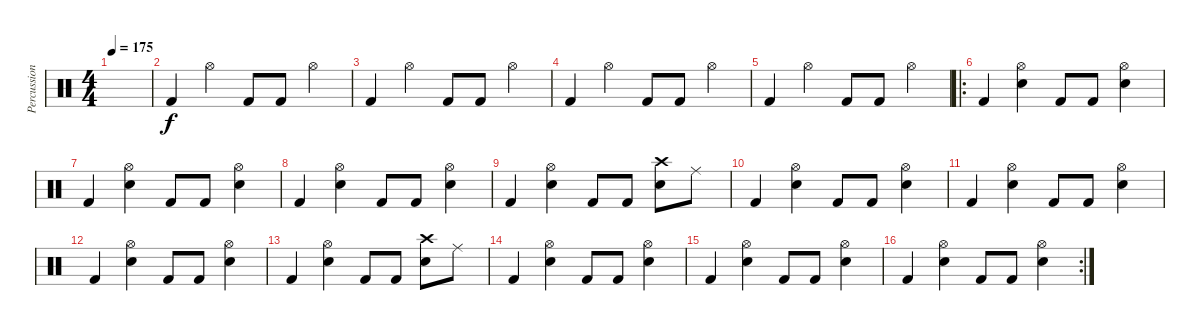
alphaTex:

\track ("Percussions" "Percussion") {instrument percussion}
\staff {score}
\articulation defaults
\ts (4 4)
\tempo 175
\clef neutral
\ks c
|
"Kick (hit) 2".4 "Hi-Hat (open)".4 "Kick (hit) 2".8 "Kick (hit) 2".8 "Hi-Hat (open)".4 |
"Kick (hit) 2".4 "Hi-Hat (open)".4 "Kick (hit) 2".8 "Kick (hit) 2".8 "Hi-Hat (open)".4 |
"Kick (hit) 2".4 "Hi-Hat (open)".4 "Kick (hit) 2".8 "Kick (hit) 2".8 "Hi-Hat (open)".4 |
"Kick (hit) 2".4 "Hi-Hat (open)".4 "Kick (hit) 2".8 "Kick (hit) 2".8 "Hi-Hat (open)".4 |
\ro "Kick (hit) 2".4
("Hi-Hat (open)" "Electric Snare (hit)").4 "Kick (hit) 2".8 "Kick (hit) 2".8 ("Hi-Hat (open)" "Electric Snare (hit)").4 |
"Kick (hit) 2".4 ("Hi-Hat (open)" "Electric Snare (hit)").4 "Kick (hit) 2".8 "Kick (hit) 2".8 ("Hi-Hat (open)" "Electric Snare (hit)").4 |
"Kick (hit) 2".4 ("Hi-Hat (open)" "Electric Snare (hit)").4 "Kick (hit) 2".8 "Kick (hit) 2".8 ("Hi-Hat (open)" "Electric Snare (hit)").4 |
"Kick (hit) 2".4 ("Hi-Hat (open)" "Electric Snare (hit)").4 "Kick (hit) 2".8 "Kick (hit) 2".8 ("Crash high (hit)" "Electric Snare (hit)").8 "Ride (middle)".8 |
"Kick (hit) 2".4 ("Hi-Hat (open)" "Electric Snare (hit)").4 "Kick (hit) 2".8 "Kick (hit) 2".8 ("Hi-Hat (open)" "Electric Snare (hit)").4 |
"Kick (hit) 2".4 ("Hi-Hat (open)" "Electric Snare (hit)").4 "Kick (hit) 2".8 "Kick (hit) 2".8 ("Hi-Hat (open)" "Electric Snare (hit)").4 |
"Kick (hit) 2".4 ("Hi-Hat (open)" "Electric Snare (hit)").4 "Kick (hit) 2".8 "Kick (hit) 2".8 ("Hi-Hat (open)" "Electric Snare (hit)").4 |
"Kick (hit) 2".4 ("Hi-Hat (open)" "Electric Snare (hit)").4 "Kick (hit) 2".8 "Kick (hit) 2".8 ("Crash high (hit)" "Electric Snare (hit)").8 "Ride (middle)".8 |
"Kick (hit) 2".4 ("Hi-Hat (open)" "Electric Snare (hit)").4 "Kick (hit) 2".8 "Kick (hit) 2".8 ("Hi-Hat (open)" "Electric Snare (hit)").4 |
"Kick (hit) 2".4 ("Hi-Hat (open)" "Electric Snare (hit)").4 "Kick (hit) 2".8 "Kick (hit) 2".8 ("Hi-Hat (open)" "Electric Snare (hit)").4 |
\rc 2 "Kick (hit) 2".4
("Hi-Hat (open)" "Electric Snare (hit)").4 "Kick (hit) 2".8 "Kick (hit) 2".8 ("Hi-Hat (open)" "Electric Snare (hit)").4
